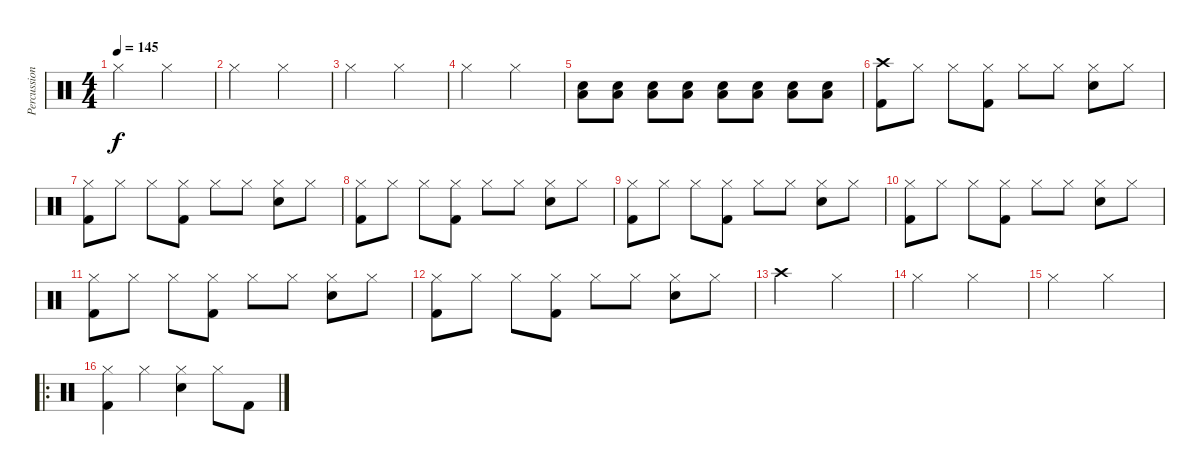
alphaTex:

\track ("Percussion" "Percussion") {instrument percussion}
\staff {score}
\articulation defaults
\ts (4 4)
\tempo 145
\clef neutral
\ks c "Hi-Hat (closed)".2{dy f} "Hi-Hat (closed)".2
|
"Hi-Hat (closed)".2 "Hi-Hat (closed)".2 |
"Hi-Hat (closed)".2 "Hi-Hat (closed)".2 |
"Hi-Hat (closed)".2 "Hi-Hat (closed)".2 |
("Snare (hit) 2" "Low Tom (hit)").8{volume 5} ("Snare (hit) 2" "Low Tom (hit)").8{volume 6} ("Snare (hit) 2" "Low Tom (hit)").8{volume 7} ("Snare (hit) 2" "Low Tom (hit)").8{volume 8} ("Snare (hit) 2" "Low Tom (hit)").8{volume 9} ("Snare (hit) 2" "Low Tom (hit)").8{volume 10} ("Snare (hit) 2" "Low Tom (hit)").8{volume 11} ("Snare (hit) 2" "Low Tom (hit)").8{volume 12} |
("Crash high (hit)" "Kick (hit) 2").8 "Hi-Hat (closed)".8 "Hi-Hat (closed)".8 ("Hi-Hat (closed)" "Kick (hit) 2").8 "Hi-Hat (closed)".8 "Hi-Hat (closed)".8 ("Hi-Hat (closed)" "Snare (hit) 2").8 "Hi-Hat (closed)".8 |
("Hi-Hat (closed)" "Kick (hit) 2").8 "Hi-Hat (closed)".8 "Hi-Hat (closed)".8 ("Hi-Hat (closed)" "Kick (hit) 2").8 "Hi-Hat (closed)".8 "Hi-Hat (closed)".8 ("Hi-Hat (closed)" "Snare (hit) 2").8 "Hi-Hat (closed)".8 |
("Hi-Hat (closed)" "Kick (hit) 2").8 "Hi-Hat (closed)".8 "Hi-Hat (closed)".8 ("Hi-Hat (closed)" "Kick (hit) 2").8 "Hi-Hat (closed)".8 "Hi-Hat (closed)".8 ("Hi-Hat (closed)" "Snare (hit) 2").8 "Hi-Hat (closed)".8 |
("Hi-Hat (closed)" "Kick (hit) 2").8 "Hi-Hat (closed)".8 "Hi-Hat (closed)".8 ("Hi-Hat (closed)" "Kick (hit) 2").8 "Hi-Hat (closed)".8 "Hi-Hat (closed)".8 ("Hi-Hat (closed)" "Snare (hit) 2").8 "Hi-Hat (closed)".8 |
("Hi-Hat (closed)" "Kick (hit) 2").8 "Hi-Hat (closed)".8 "Hi-Hat (closed)".8 ("Hi-Hat (closed)" "Kick (hit) 2").8 "Hi-Hat (closed)".8 "Hi-Hat (closed)".8 ("Hi-Hat (closed)" "Snare (hit) 2").8 "Hi-Hat (closed)".8 |
("Hi-Hat (closed)" "Kick (hit) 2").8 "Hi-Hat (closed)".8 "Hi-Hat (closed)".8 ("Hi-Hat (closed)" "Kick (hit) 2").8 "Hi-Hat (closed)".8 "Hi-Hat (closed)".8 ("Hi-Hat (closed)" "Snare (hit) 2").8 "Hi-Hat (closed)".8 |
("Hi-Hat (closed)" "Kick (hit) 2").8 "Hi-Hat (closed)".8 "Hi-Hat (closed)".8 ("Hi-Hat (closed)" "Kick (hit) 2").8 "Hi-Hat (closed)".8 "Hi-Hat (closed)".8 ("Hi-Hat (closed)" "Snare (hit) 2").8 "Hi-Hat (closed)".8 |
"Crash high (hit)".2 "Hi-Hat (closed)".2 |
"Hi-Hat (closed)".2 "Hi-Hat (closed)".2 |
"Hi-Hat (closed)".2 "Hi-Hat (closed)".2 |
\ro
("Hi-Hat (closed)" "Kick (hit) 2").4 "Hi-Hat (closed)".4 ("Hi-Hat (closed)" "Snare (hit) 2").4 "Hi-Hat (closed)".8 "Kick (hit) 2".8
